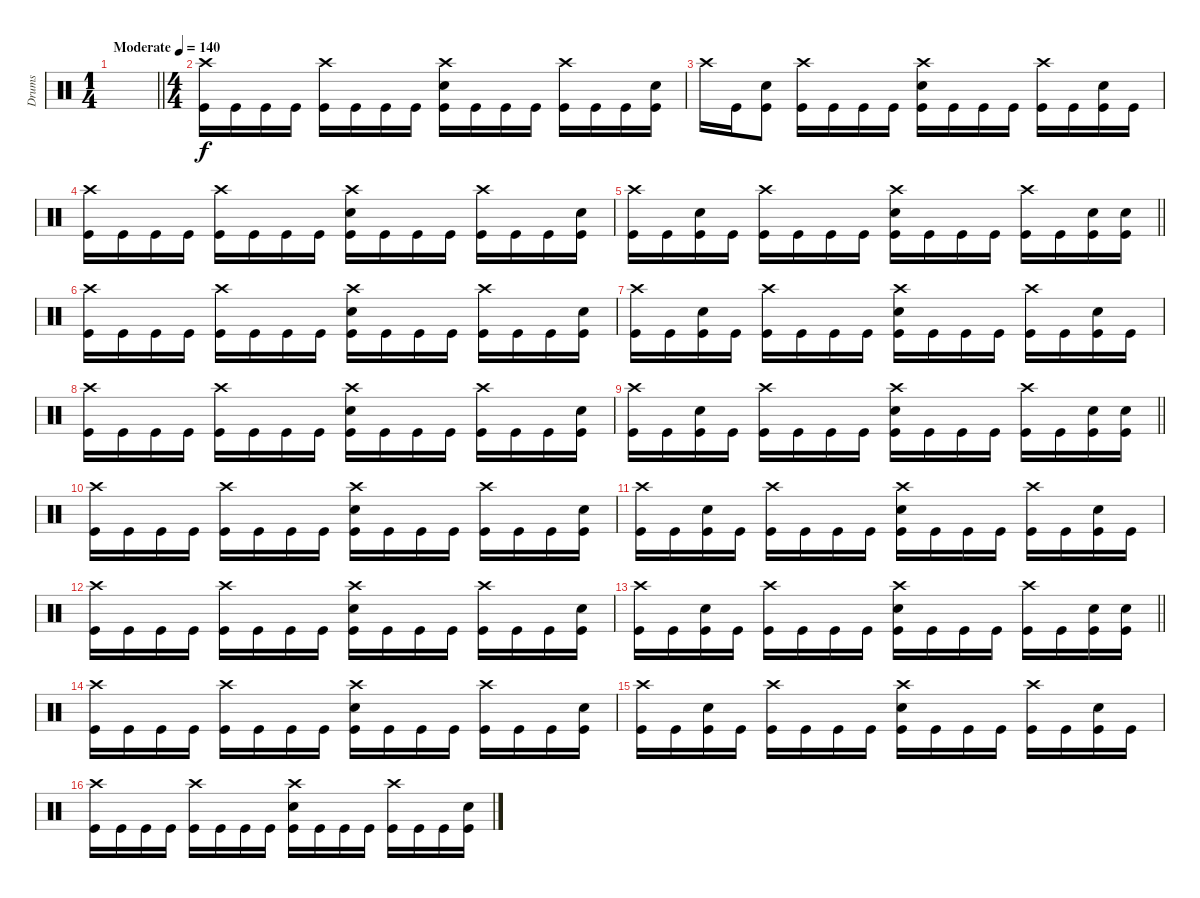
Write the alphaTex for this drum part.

\track ("Drums" "Drums") {instrument percussion}
\staff
\articulation defaults
\ts (1 4)
\tempo (140 "Moderate")
\clef neutral
\barLineRight lightlight
\ks c
|
\ts (4 4)
("Crash high (hit)" "Kick (hit)").16 "Kick (hit)".16 "Kick (hit)".16 "Kick (hit)".16 ("Crash high (hit)" "Kick (hit)").16 "Kick (hit)".16 "Kick (hit)".16 "Kick (hit)".16 ("Crash high (hit)" "Electric Snare (hit)" "Kick (hit)").16 "Kick (hit)".16 "Kick (hit)".16 "Kick (hit)".16 ("Crash high (hit)" "Kick (hit)").16 "Kick (hit)".16 "Kick (hit)".16 ("Electric Snare (hit)" "Kick (hit)").16 |
"Crash high (hit)".16 "Kick (hit)".16 ("Electric Snare (hit)" "Kick (hit)").8 ("Crash high (hit)" "Kick (hit)").16 "Kick (hit)".16 "Kick (hit)".16 "Kick (hit)".16 ("Crash high (hit)" "Electric Snare (hit)" "Kick (hit)").16 "Kick (hit)".16 "Kick (hit)".16 "Kick (hit)".16 ("Crash high (hit)" "Kick (hit)").16 "Kick (hit)".16 ("Electric Snare (hit)" "Kick (hit)").16 "Kick (hit)".16 |
("Crash high (hit)" "Kick (hit)").16 "Kick (hit)".16 "Kick (hit)".16 "Kick (hit)".16 ("Crash high (hit)" "Kick (hit)").16 "Kick (hit)".16 "Kick (hit)".16 "Kick (hit)".16 ("Crash high (hit)" "Electric Snare (hit)" "Kick (hit)").16 "Kick (hit)".16 "Kick (hit)".16 "Kick (hit)".16 ("Crash high (hit)" "Kick (hit)").16 "Kick (hit)".16 "Kick (hit)".16 ("Electric Snare (hit)" "Kick (hit)").16 |
\barLineRight lightlight
("Crash high (hit)" "Kick (hit)").16 "Kick (hit)".16 ("Electric Snare (hit)" "Kick (hit)").16 "Kick (hit)".16 ("Crash high (hit)" "Kick (hit)").16 "Kick (hit)".16 "Kick (hit)".16 "Kick (hit)".16 ("Crash high (hit)" "Electric Snare (hit)" "Kick (hit)").16 "Kick (hit)".16 "Kick (hit)".16 "Kick (hit)".16 ("Crash high (hit)" "Kick (hit)").16 "Kick (hit)".16 ("Electric Snare (hit)" "Kick (hit)").16 ("Electric Snare (hit)" "Kick (hit)").16 |
("Crash high (hit)" "Kick (hit)").16 "Kick (hit)".16 "Kick (hit)".16 "Kick (hit)".16 ("Crash high (hit)" "Kick (hit)").16 "Kick (hit)".16 "Kick (hit)".16 "Kick (hit)".16 ("Crash high (hit)" "Electric Snare (hit)" "Kick (hit)").16 "Kick (hit)".16 "Kick (hit)".16 "Kick (hit)".16 ("Crash high (hit)" "Kick (hit)").16 "Kick (hit)".16 "Kick (hit)".16 ("Electric Snare (hit)" "Kick (hit)").16 |
("Crash high (hit)" "Kick (hit)").16 "Kick (hit)".16 ("Electric Snare (hit)" "Kick (hit)").16 "Kick (hit)".16 ("Crash high (hit)" "Kick (hit)").16 "Kick (hit)".16 "Kick (hit)".16 "Kick (hit)".16 ("Crash high (hit)" "Electric Snare (hit)" "Kick (hit)").16 "Kick (hit)".16 "Kick (hit)".16 "Kick (hit)".16 ("Crash high (hit)" "Kick (hit)").16 "Kick (hit)".16 ("Electric Snare (hit)" "Kick (hit)").16 "Kick (hit)".16 |
("Crash high (hit)" "Kick (hit)").16 "Kick (hit)".16 "Kick (hit)".16 "Kick (hit)".16 ("Crash high (hit)" "Kick (hit)").16 "Kick (hit)".16 "Kick (hit)".16 "Kick (hit)".16 ("Crash high (hit)" "Electric Snare (hit)" "Kick (hit)").16 "Kick (hit)".16 "Kick (hit)".16 "Kick (hit)".16 ("Crash high (hit)" "Kick (hit)").16 "Kick (hit)".16 "Kick (hit)".16 ("Electric Snare (hit)" "Kick (hit)").16 |
\barLineRight lightlight
("Crash high (hit)" "Kick (hit)").16 "Kick (hit)".16 ("Electric Snare (hit)" "Kick (hit)").16 "Kick (hit)".16 ("Crash high (hit)" "Kick (hit)").16 "Kick (hit)".16 "Kick (hit)".16 "Kick (hit)".16 ("Crash high (hit)" "Electric Snare (hit)" "Kick (hit)").16 "Kick (hit)".16 "Kick (hit)".16 "Kick (hit)".16 ("Crash high (hit)" "Kick (hit)").16 "Kick (hit)".16 ("Electric Snare (hit)" "Kick (hit)").16 ("Electric Snare (hit)" "Kick (hit)").16 |
("Crash high (hit)" "Kick (hit)").16 "Kick (hit)".16 "Kick (hit)".16 "Kick (hit)".16 ("Crash high (hit)" "Kick (hit)").16 "Kick (hit)".16 "Kick (hit)".16 "Kick (hit)".16 ("Crash high (hit)" "Electric Snare (hit)" "Kick (hit)").16 "Kick (hit)".16 "Kick (hit)".16 "Kick (hit)".16 ("Crash high (hit)" "Kick (hit)").16 "Kick (hit)".16 "Kick (hit)".16 ("Electric Snare (hit)" "Kick (hit)").16 |
("Crash high (hit)" "Kick (hit)").16 "Kick (hit)".16 ("Electric Snare (hit)" "Kick (hit)").16 "Kick (hit)".16 ("Crash high (hit)" "Kick (hit)").16 "Kick (hit)".16 "Kick (hit)".16 "Kick (hit)".16 ("Crash high (hit)" "Electric Snare (hit)" "Kick (hit)").16 "Kick (hit)".16 "Kick (hit)".16 "Kick (hit)".16 ("Crash high (hit)" "Kick (hit)").16 "Kick (hit)".16 ("Electric Snare (hit)" "Kick (hit)").16 "Kick (hit)".16 |
("Crash high (hit)" "Kick (hit)").16 "Kick (hit)".16 "Kick (hit)".16 "Kick (hit)".16 ("Crash high (hit)" "Kick (hit)").16 "Kick (hit)".16 "Kick (hit)".16 "Kick (hit)".16 ("Crash high (hit)" "Electric Snare (hit)" "Kick (hit)").16 "Kick (hit)".16 "Kick (hit)".16 "Kick (hit)".16 ("Crash high (hit)" "Kick (hit)").16 "Kick (hit)".16 "Kick (hit)".16 ("Electric Snare (hit)" "Kick (hit)").16 |
\barLineRight lightlight
("Crash high (hit)" "Kick (hit)").16 "Kick (hit)".16 ("Electric Snare (hit)" "Kick (hit)").16 "Kick (hit)".16 ("Crash high (hit)" "Kick (hit)").16 "Kick (hit)".16 "Kick (hit)".16 "Kick (hit)".16 ("Crash high (hit)" "Electric Snare (hit)" "Kick (hit)").16 "Kick (hit)".16 "Kick (hit)".16 "Kick (hit)".16 ("Crash high (hit)" "Kick (hit)").16 "Kick (hit)".16 ("Electric Snare (hit)" "Kick (hit)").16 ("Electric Snare (hit)" "Kick (hit)").16 |
("Crash high (hit)" "Kick (hit)").16 "Kick (hit)".16 "Kick (hit)".16 "Kick (hit)".16 ("Crash high (hit)" "Kick (hit)").16 "Kick (hit)".16 "Kick (hit)".16 "Kick (hit)".16 ("Crash high (hit)" "Electric Snare (hit)" "Kick (hit)").16 "Kick (hit)".16 "Kick (hit)".16 "Kick (hit)".16 ("Crash high (hit)" "Kick (hit)").16 "Kick (hit)".16 "Kick (hit)".16 ("Electric Snare (hit)" "Kick (hit)").16 |
("Crash high (hit)" "Kick (hit)").16 "Kick (hit)".16 ("Electric Snare (hit)" "Kick (hit)").16 "Kick (hit)".16 ("Crash high (hit)" "Kick (hit)").16 "Kick (hit)".16 "Kick (hit)".16 "Kick (hit)".16 ("Crash high (hit)" "Electric Snare (hit)" "Kick (hit)").16 "Kick (hit)".16 "Kick (hit)".16 "Kick (hit)".16 ("Crash high (hit)" "Kick (hit)").16 "Kick (hit)".16 ("Electric Snare (hit)" "Kick (hit)").16 "Kick (hit)".16 |
("Crash high (hit)" "Kick (hit)").16 "Kick (hit)".16 "Kick (hit)".16 "Kick (hit)".16 ("Crash high (hit)" "Kick (hit)").16 "Kick (hit)".16 "Kick (hit)".16 "Kick (hit)".16 ("Crash high (hit)" "Electric Snare (hit)" "Kick (hit)").16 "Kick (hit)".16 "Kick (hit)".16 "Kick (hit)".16 ("Crash high (hit)" "Kick (hit)").16 "Kick (hit)".16 "Kick (hit)".16 ("Electric Snare (hit)" "Kick (hit)").16
